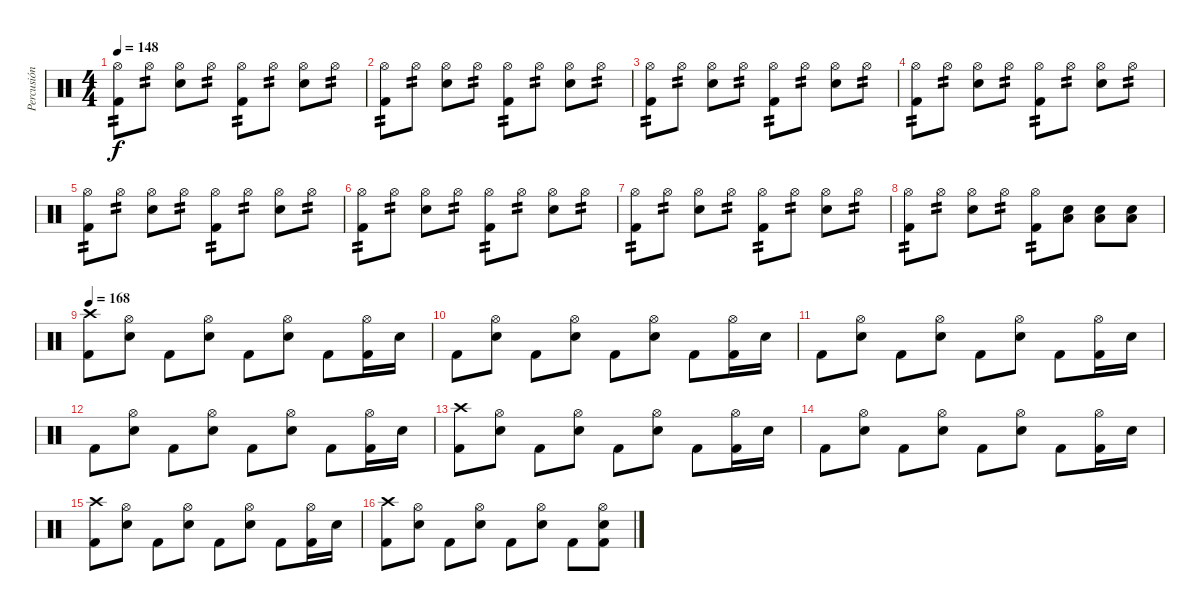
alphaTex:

\track ("Percusión" "Percusión") {instrument percussion}
\staff {score}
\articulation defaults
\ts (4 4)
\tempo 148
\clef neutral
\ks c
("Hi-Hat (open)" "Kick (hit) 2").8{tp 2 dy f} "Hi-Hat (open)".8{tp 2} ("Hi-Hat (open)" "Electric Snare (hit)").8 "Hi-Hat (open)".8{tp 2} ("Hi-Hat (open)" "Kick (hit) 2").8{tp 2} "Hi-Hat (open)".8{tp 2} ("Hi-Hat (open)" "Electric Snare (hit)").8 "Hi-Hat (open)".8{tp 2} |
("Hi-Hat (open)" "Kick (hit) 2").8{tp 2} "Hi-Hat (open)".8{tp 2} ("Hi-Hat (open)" "Electric Snare (hit)").8 "Hi-Hat (open)".8{tp 2} ("Hi-Hat (open)" "Kick (hit) 2").8{tp 2} "Hi-Hat (open)".8{tp 2} ("Hi-Hat (open)" "Electric Snare (hit)").8 "Hi-Hat (open)".8{tp 2} |
("Hi-Hat (open)" "Kick (hit) 2").8{tp 2} "Hi-Hat (open)".8{tp 2} ("Hi-Hat (open)" "Electric Snare (hit)").8 "Hi-Hat (open)".8{tp 2} ("Hi-Hat (open)" "Kick (hit) 2").8{tp 2} "Hi-Hat (open)".8{tp 2} ("Hi-Hat (open)" "Electric Snare (hit)").8 "Hi-Hat (open)".8{tp 2} |
("Hi-Hat (open)" "Kick (hit) 2").8{tp 2} "Hi-Hat (open)".8{tp 2} ("Hi-Hat (open)" "Electric Snare (hit)").8 "Hi-Hat (open)".8{tp 2} ("Hi-Hat (open)" "Kick (hit) 2").8{tp 2} "Hi-Hat (open)".8{tp 2} ("Hi-Hat (open)" "Electric Snare (hit)").8 "Hi-Hat (open)".8{tp 2} |
("Hi-Hat (open)" "Kick (hit) 2").8{tp 2} "Hi-Hat (open)".8{tp 2} ("Hi-Hat (open)" "Electric Snare (hit)").8 "Hi-Hat (open)".8{tp 2} ("Hi-Hat (open)" "Kick (hit) 2").8{tp 2} "Hi-Hat (open)".8{tp 2} ("Hi-Hat (open)" "Electric Snare (hit)").8 "Hi-Hat (open)".8{tp 2} |
("Hi-Hat (open)" "Kick (hit) 2").8{tp 2} "Hi-Hat (open)".8{tp 2} ("Hi-Hat (open)" "Electric Snare (hit)").8 "Hi-Hat (open)".8{tp 2} ("Hi-Hat (open)" "Kick (hit) 2").8{tp 2} "Hi-Hat (open)".8{tp 2} ("Hi-Hat (open)" "Electric Snare (hit)").8 "Hi-Hat (open)".8{tp 2} |
("Hi-Hat (open)" "Kick (hit) 2").8{tp 2} "Hi-Hat (open)".8{tp 2} ("Hi-Hat (open)" "Electric Snare (hit)").8 "Hi-Hat (open)".8{tp 2} ("Hi-Hat (open)" "Kick (hit) 2").8{tp 2} "Hi-Hat (open)".8{tp 2} ("Hi-Hat (open)" "Electric Snare (hit)").8 "Hi-Hat (open)".8{tp 2} |
("Hi-Hat (open)" "Kick (hit) 2").8{tp 2} "Hi-Hat (open)".8{tp 2} ("Hi-Hat (open)" "Electric Snare (hit)").8 "Hi-Hat (open)".8{tp 2} ("Hi-Hat (open)" "Kick (hit) 2").8{tp 2} ("Low Floor Tom (hit)" "Electric Snare (hit)").8 ("Low Floor Tom (hit)" "Electric Snare (hit)").8 ("Low Floor Tom (hit)" "Electric Snare (hit)").8 |
\tempo 168
("Crash high (hit)" "Kick (hit) 2").8 ("Hi-Hat (open)" "Electric Snare (hit)").8 "Kick (hit) 2".8 ("Hi-Hat (open)" "Electric Snare (hit)").8 "Kick (hit) 2".8 ("Hi-Hat (open)" "Electric Snare (hit)").8 "Kick (hit) 2".8 ("Hi-Hat (open)" "Kick (hit) 2").16 "Electric Snare (hit)".16 |
"Kick (hit) 2".8 ("Hi-Hat (open)" "Electric Snare (hit)").8 "Kick (hit) 2".8 ("Hi-Hat (open)" "Electric Snare (hit)").8 "Kick (hit) 2".8 ("Hi-Hat (open)" "Electric Snare (hit)").8 "Kick (hit) 2".8 ("Hi-Hat (open)" "Kick (hit) 2").16 "Electric Snare (hit)".16 |
"Kick (hit) 2".8 ("Hi-Hat (open)" "Electric Snare (hit)").8 "Kick (hit) 2".8 ("Hi-Hat (open)" "Electric Snare (hit)").8 "Kick (hit) 2".8 ("Hi-Hat (open)" "Electric Snare (hit)").8 "Kick (hit) 2".8 ("Hi-Hat (open)" "Kick (hit) 2").16 "Electric Snare (hit)".16 |
"Kick (hit) 2".8 ("Hi-Hat (open)" "Electric Snare (hit)").8 "Kick (hit) 2".8 ("Hi-Hat (open)" "Electric Snare (hit)").8 "Kick (hit) 2".8 ("Hi-Hat (open)" "Electric Snare (hit)").8 "Kick (hit) 2".8 ("Hi-Hat (open)" "Kick (hit) 2").16 "Electric Snare (hit)".16 |
("Crash high (hit)" "Kick (hit) 2").8 ("Hi-Hat (open)" "Electric Snare (hit)").8 "Kick (hit) 2".8 ("Hi-Hat (open)" "Electric Snare (hit)").8 "Kick (hit) 2".8 ("Hi-Hat (open)" "Electric Snare (hit)").8 "Kick (hit) 2".8 ("Hi-Hat (open)" "Kick (hit) 2").16 "Electric Snare (hit)".16 |
"Kick (hit) 2".8 ("Hi-Hat (open)" "Electric Snare (hit)").8 "Kick (hit) 2".8 ("Hi-Hat (open)" "Electric Snare (hit)").8 "Kick (hit) 2".8 ("Hi-Hat (open)" "Electric Snare (hit)").8 "Kick (hit) 2".8 ("Hi-Hat (open)" "Kick (hit) 2").16 "Electric Snare (hit)".16 |
("Crash high (hit)" "Kick (hit) 2").8 ("Hi-Hat (open)" "Electric Snare (hit)").8 "Kick (hit) 2".8 ("Hi-Hat (open)" "Electric Snare (hit)").8 "Kick (hit) 2".8 ("Hi-Hat (open)" "Electric Snare (hit)").8 "Kick (hit) 2".8 ("Hi-Hat (open)" "Kick (hit) 2").16 "Electric Snare (hit)".16 |
("Crash high (hit)" "Kick (hit) 2").8 ("Hi-Hat (open)" "Electric Snare (hit)").8 "Kick (hit) 2".8 ("Hi-Hat (open)" "Electric Snare (hit)").8 "Kick (hit) 2".8 ("Hi-Hat (open)" "Electric Snare (hit)").8 "Kick (hit) 2".8 ("Hi-Hat (open)" "Electric Snare (hit)" "Kick (hit) 2").8
